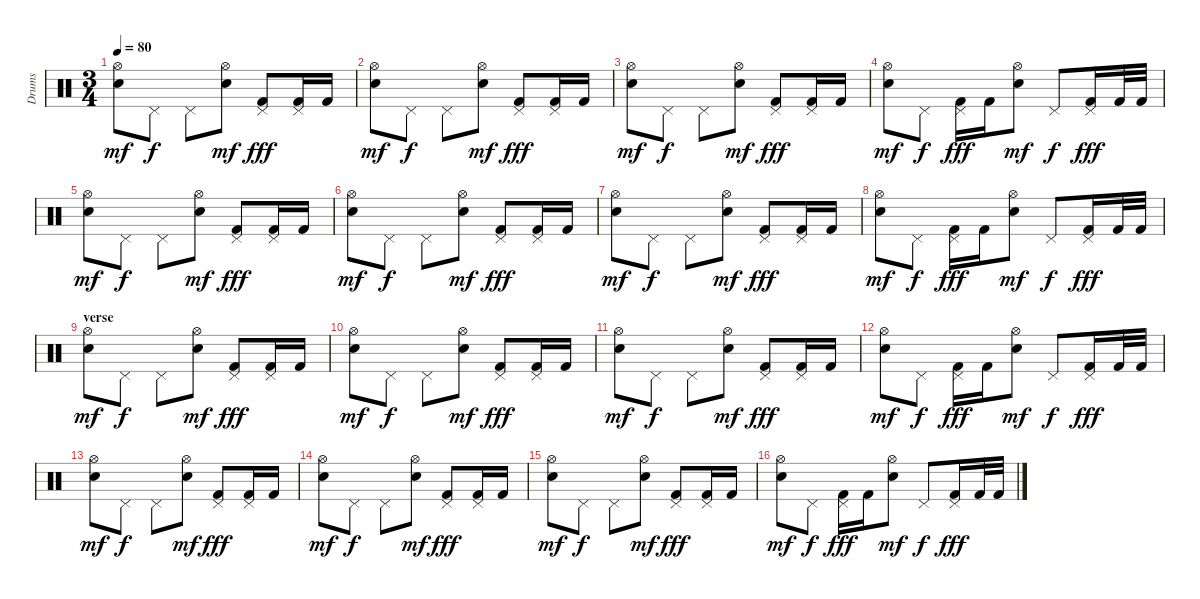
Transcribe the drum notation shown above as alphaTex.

\track ("Drums" "Drums") {instrument percussion}
\staff {score}
\articulation defaults
\ts (3 4)
\tempo 80
\clef neutral
\ks c
("Hi-Hat (open)" "Snare (hit) 2").8{dy mf} "Pedal Hi-Hat (hit)".8{dy f} "Pedal Hi-Hat (hit)".8 ("Hi-Hat (open)" "Snare (hit) 2").8{dy mf} ("Pedal Hi-Hat (hit)" "Kick (hit) 2").8{dy fff} ("Pedal Hi-Hat (hit)" "Kick (hit) 2").16 "Kick (hit) 2".16 |
("Hi-Hat (open)" "Snare (hit) 2").8{dy mf} "Pedal Hi-Hat (hit)".8{dy f} "Pedal Hi-Hat (hit)".8 ("Hi-Hat (open)" "Snare (hit) 2").8{dy mf} ("Pedal Hi-Hat (hit)" "Kick (hit) 2").8{dy fff} ("Pedal Hi-Hat (hit)" "Kick (hit) 2").16 "Kick (hit) 2".16 |
("Hi-Hat (open)" "Snare (hit) 2").8{dy mf} "Pedal Hi-Hat (hit)".8{dy f} "Pedal Hi-Hat (hit)".8 ("Hi-Hat (open)" "Snare (hit) 2").8{dy mf} ("Pedal Hi-Hat (hit)" "Kick (hit) 2").8{dy fff} ("Pedal Hi-Hat (hit)" "Kick (hit) 2").16 "Kick (hit) 2".16 |
("Hi-Hat (open)" "Snare (hit) 2").8{dy mf} "Pedal Hi-Hat (hit)".8{dy f} ("Pedal Hi-Hat (hit)" "Kick (hit) 2").16{dy fff} "Kick (hit) 2".16 ("Hi-Hat (open)" "Snare (hit) 2").8{dy mf} "Pedal Hi-Hat (hit)".8{dy f} ("Pedal Hi-Hat (hit)" "Kick (hit) 2").16{dy fff} "Kick (hit) 2".32 "Kick (hit) 2".32 |
("Hi-Hat (open)" "Snare (hit) 2").8{dy mf} "Pedal Hi-Hat (hit)".8{dy f} "Pedal Hi-Hat (hit)".8 ("Hi-Hat (open)" "Snare (hit) 2").8{dy mf} ("Pedal Hi-Hat (hit)" "Kick (hit) 2").8{dy fff} ("Pedal Hi-Hat (hit)" "Kick (hit) 2").16 "Kick (hit) 2".16 |
("Hi-Hat (open)" "Snare (hit) 2").8{dy mf} "Pedal Hi-Hat (hit)".8{dy f} "Pedal Hi-Hat (hit)".8 ("Hi-Hat (open)" "Snare (hit) 2").8{dy mf} ("Pedal Hi-Hat (hit)" "Kick (hit) 2").8{dy fff} ("Pedal Hi-Hat (hit)" "Kick (hit) 2").16 "Kick (hit) 2".16 |
("Hi-Hat (open)" "Snare (hit) 2").8{dy mf} "Pedal Hi-Hat (hit)".8{dy f} "Pedal Hi-Hat (hit)".8 ("Hi-Hat (open)" "Snare (hit) 2").8{dy mf} ("Pedal Hi-Hat (hit)" "Kick (hit) 2").8{dy fff} ("Pedal Hi-Hat (hit)" "Kick (hit) 2").16 "Kick (hit) 2".16 |
("Hi-Hat (open)" "Snare (hit) 2").8{dy mf} "Pedal Hi-Hat (hit)".8{dy f} ("Pedal Hi-Hat (hit)" "Kick (hit) 2").16{dy fff} "Kick (hit) 2".16 ("Hi-Hat (open)" "Snare (hit) 2").8{dy mf} "Pedal Hi-Hat (hit)".8{dy f} ("Pedal Hi-Hat (hit)" "Kick (hit) 2").16{dy fff} "Kick (hit) 2".32 "Kick (hit) 2".32 |
\section ("" "verse")
("Hi-Hat (open)" "Snare (hit) 2").8{dy mf} "Pedal Hi-Hat (hit)".8{dy f} "Pedal Hi-Hat (hit)".8 ("Hi-Hat (open)" "Snare (hit) 2").8{dy mf} ("Pedal Hi-Hat (hit)" "Kick (hit) 2").8{dy fff} ("Pedal Hi-Hat (hit)" "Kick (hit) 2").16 "Kick (hit) 2".16 |
("Hi-Hat (open)" "Snare (hit) 2").8{dy mf} "Pedal Hi-Hat (hit)".8{dy f} "Pedal Hi-Hat (hit)".8 ("Hi-Hat (open)" "Snare (hit) 2").8{dy mf} ("Pedal Hi-Hat (hit)" "Kick (hit) 2").8{dy fff} ("Pedal Hi-Hat (hit)" "Kick (hit) 2").16 "Kick (hit) 2".16 |
("Hi-Hat (open)" "Snare (hit) 2").8{dy mf} "Pedal Hi-Hat (hit)".8{dy f} "Pedal Hi-Hat (hit)".8 ("Hi-Hat (open)" "Snare (hit) 2").8{dy mf} ("Pedal Hi-Hat (hit)" "Kick (hit) 2").8{dy fff} ("Pedal Hi-Hat (hit)" "Kick (hit) 2").16 "Kick (hit) 2".16 |
("Hi-Hat (open)" "Snare (hit) 2").8{dy mf} "Pedal Hi-Hat (hit)".8{dy f} ("Pedal Hi-Hat (hit)" "Kick (hit) 2").16{dy fff} "Kick (hit) 2".16 ("Hi-Hat (open)" "Snare (hit) 2").8{dy mf} "Pedal Hi-Hat (hit)".8{dy f} ("Pedal Hi-Hat (hit)" "Kick (hit) 2").16{dy fff} "Kick (hit) 2".32 "Kick (hit) 2".32 |
("Hi-Hat (open)" "Snare (hit) 2").8{dy mf} "Pedal Hi-Hat (hit)".8{dy f} "Pedal Hi-Hat (hit)".8 ("Hi-Hat (open)" "Snare (hit) 2").8{dy mf} ("Pedal Hi-Hat (hit)" "Kick (hit) 2").8{dy fff} ("Pedal Hi-Hat (hit)" "Kick (hit) 2").16 "Kick (hit) 2".16 |
("Hi-Hat (open)" "Snare (hit) 2").8{dy mf} "Pedal Hi-Hat (hit)".8{dy f} "Pedal Hi-Hat (hit)".8 ("Hi-Hat (open)" "Snare (hit) 2").8{dy mf} ("Pedal Hi-Hat (hit)" "Kick (hit) 2").8{dy fff} ("Pedal Hi-Hat (hit)" "Kick (hit) 2").16 "Kick (hit) 2".16 |
("Hi-Hat (open)" "Snare (hit) 2").8{dy mf} "Pedal Hi-Hat (hit)".8{dy f} "Pedal Hi-Hat (hit)".8 ("Hi-Hat (open)" "Snare (hit) 2").8{dy mf} ("Pedal Hi-Hat (hit)" "Kick (hit) 2").8{dy fff} ("Pedal Hi-Hat (hit)" "Kick (hit) 2").16 "Kick (hit) 2".16 |
("Hi-Hat (open)" "Snare (hit) 2").8{dy mf} "Pedal Hi-Hat (hit)".8{dy f} ("Pedal Hi-Hat (hit)" "Kick (hit) 2").16{dy fff} "Kick (hit) 2".16 ("Hi-Hat (open)" "Snare (hit) 2").8{dy mf} "Pedal Hi-Hat (hit)".8{dy f} ("Pedal Hi-Hat (hit)" "Kick (hit) 2").16{dy fff} "Kick (hit) 2".32 "Kick (hit) 2".32
